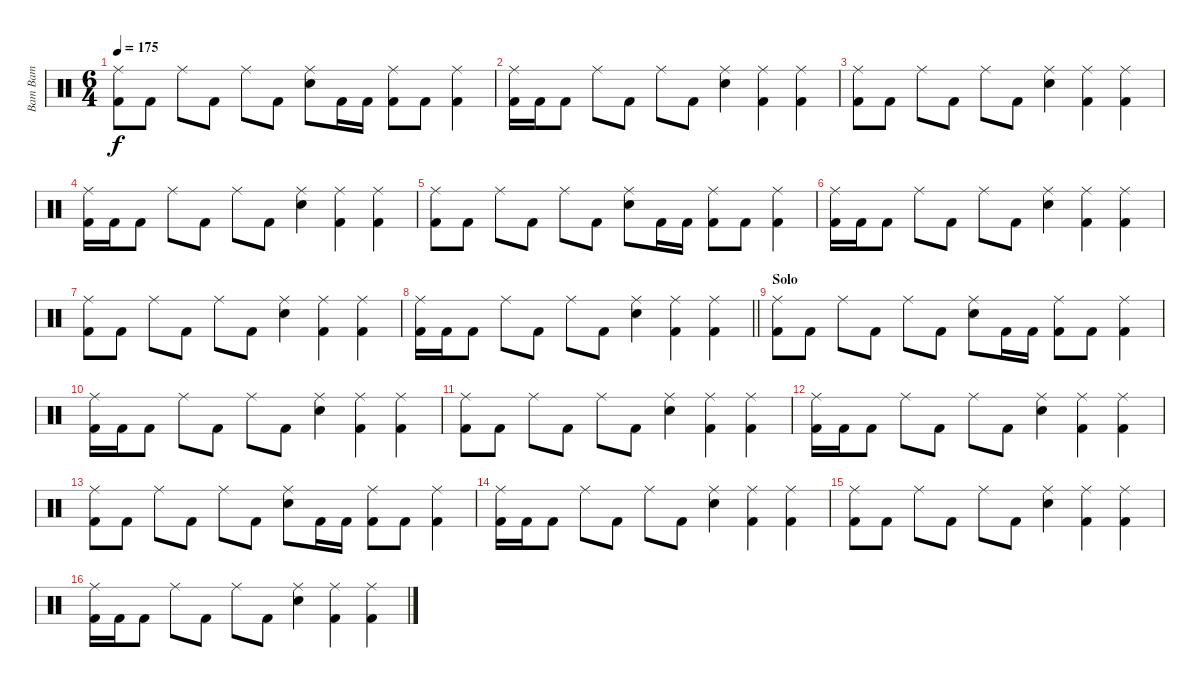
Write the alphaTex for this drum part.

\track ("Bam Bam" "Bam Bam") {instrument percussion}
\staff {score}
\articulation defaults
\ts (6 4)
\tempo 175
\clef neutral
\ks c
("Ride (middle)" "Kick (hit) 2").8{dy f} "Kick (hit) 2".8 "Ride (middle)".8 "Kick (hit) 2".8 "Ride (middle)".8 "Kick (hit) 2".8 ("Ride (middle)" "Electric Snare (hit)").8 "Kick (hit) 2".16 "Kick (hit) 2".16 ("Ride (middle)" "Kick (hit) 2").8 "Kick (hit) 2".8 ("Ride (middle)" "Kick (hit) 2").4 |
("Ride (middle)" "Kick (hit) 2").16 "Kick (hit) 2".16 "Kick (hit) 2".8 "Ride (middle)".8 "Kick (hit) 2".8 "Ride (middle)".8 "Kick (hit) 2".8 ("Ride (middle)" "Electric Snare (hit)").4 ("Ride (middle)" "Kick (hit) 2").4 ("Ride (middle)" "Kick (hit) 2").4 |
("Ride (middle)" "Kick (hit) 2").8 "Kick (hit) 2".8 "Ride (middle)".8 "Kick (hit) 2".8 "Ride (middle)".8 "Kick (hit) 2".8 ("Ride (middle)" "Electric Snare (hit)").4 ("Ride (middle)" "Kick (hit) 2").4 ("Ride (middle)" "Kick (hit) 2").4 |
("Ride (middle)" "Kick (hit) 2").16 "Kick (hit) 2".16 "Kick (hit) 2".8 "Ride (middle)".8 "Kick (hit) 2".8 "Ride (middle)".8 "Kick (hit) 2".8 ("Ride (middle)" "Electric Snare (hit)").4 ("Ride (middle)" "Kick (hit) 2").4 ("Ride (middle)" "Kick (hit) 2").4 |
("Ride (middle)" "Kick (hit) 2").8 "Kick (hit) 2".8 "Ride (middle)".8 "Kick (hit) 2".8 "Ride (middle)".8 "Kick (hit) 2".8 ("Ride (middle)" "Electric Snare (hit)").8 "Kick (hit) 2".16 "Kick (hit) 2".16 ("Ride (middle)" "Kick (hit) 2").8 "Kick (hit) 2".8 ("Ride (middle)" "Kick (hit) 2").4 |
("Ride (middle)" "Kick (hit) 2").16 "Kick (hit) 2".16 "Kick (hit) 2".8 "Ride (middle)".8 "Kick (hit) 2".8 "Ride (middle)".8 "Kick (hit) 2".8 ("Ride (middle)" "Electric Snare (hit)").4 ("Ride (middle)" "Kick (hit) 2").4 ("Ride (middle)" "Kick (hit) 2").4 |
("Ride (middle)" "Kick (hit) 2").8 "Kick (hit) 2".8 "Ride (middle)".8 "Kick (hit) 2".8 "Ride (middle)".8 "Kick (hit) 2".8 ("Ride (middle)" "Electric Snare (hit)").4 ("Ride (middle)" "Kick (hit) 2").4 ("Ride (middle)" "Kick (hit) 2").4 |
\barLineRight lightlight
("Ride (middle)" "Kick (hit) 2").16 "Kick (hit) 2".16 "Kick (hit) 2".8 "Ride (middle)".8 "Kick (hit) 2".8 "Ride (middle)".8 "Kick (hit) 2".8 ("Ride (middle)" "Electric Snare (hit)").4 ("Ride (middle)" "Kick (hit) 2").4 ("Ride (middle)" "Kick (hit) 2").4 |
\section ("" "Solo")
("Ride (middle)" "Kick (hit) 2").8 "Kick (hit) 2".8 "Ride (middle)".8 "Kick (hit) 2".8 "Ride (middle)".8 "Kick (hit) 2".8 ("Ride (middle)" "Electric Snare (hit)").8 "Kick (hit) 2".16 "Kick (hit) 2".16 ("Ride (middle)" "Kick (hit) 2").8 "Kick (hit) 2".8 ("Ride (middle)" "Kick (hit) 2").4 |
("Ride (middle)" "Kick (hit) 2").16 "Kick (hit) 2".16 "Kick (hit) 2".8 "Ride (middle)".8 "Kick (hit) 2".8 "Ride (middle)".8 "Kick (hit) 2".8 ("Ride (middle)" "Electric Snare (hit)").4 ("Ride (middle)" "Kick (hit) 2").4 ("Ride (middle)" "Kick (hit) 2").4 |
("Ride (middle)" "Kick (hit) 2").8 "Kick (hit) 2".8 "Ride (middle)".8 "Kick (hit) 2".8 "Ride (middle)".8 "Kick (hit) 2".8 ("Ride (middle)" "Electric Snare (hit)").4 ("Ride (middle)" "Kick (hit) 2").4 ("Ride (middle)" "Kick (hit) 2").4 |
("Ride (middle)" "Kick (hit) 2").16 "Kick (hit) 2".16 "Kick (hit) 2".8 "Ride (middle)".8 "Kick (hit) 2".8 "Ride (middle)".8 "Kick (hit) 2".8 ("Ride (middle)" "Electric Snare (hit)").4 ("Ride (middle)" "Kick (hit) 2").4 ("Ride (middle)" "Kick (hit) 2").4 |
("Ride (middle)" "Kick (hit) 2").8 "Kick (hit) 2".8 "Ride (middle)".8 "Kick (hit) 2".8 "Ride (middle)".8 "Kick (hit) 2".8 ("Ride (middle)" "Electric Snare (hit)").8 "Kick (hit) 2".16 "Kick (hit) 2".16 ("Ride (middle)" "Kick (hit) 2").8 "Kick (hit) 2".8 ("Ride (middle)" "Kick (hit) 2").4 |
("Ride (middle)" "Kick (hit) 2").16 "Kick (hit) 2".16 "Kick (hit) 2".8 "Ride (middle)".8 "Kick (hit) 2".8 "Ride (middle)".8 "Kick (hit) 2".8 ("Ride (middle)" "Electric Snare (hit)").4 ("Ride (middle)" "Kick (hit) 2").4 ("Ride (middle)" "Kick (hit) 2").4 |
("Ride (middle)" "Kick (hit) 2").8 "Kick (hit) 2".8 "Ride (middle)".8 "Kick (hit) 2".8 "Ride (middle)".8 "Kick (hit) 2".8 ("Ride (middle)" "Electric Snare (hit)").4 ("Ride (middle)" "Kick (hit) 2").4 ("Ride (middle)" "Kick (hit) 2").4 |
("Ride (middle)" "Kick (hit) 2").16 "Kick (hit) 2".16 "Kick (hit) 2".8 "Ride (middle)".8 "Kick (hit) 2".8 "Ride (middle)".8 "Kick (hit) 2".8 ("Ride (middle)" "Electric Snare (hit)").4 ("Ride (middle)" "Kick (hit) 2").4 ("Ride (middle)" "Kick (hit) 2").4
